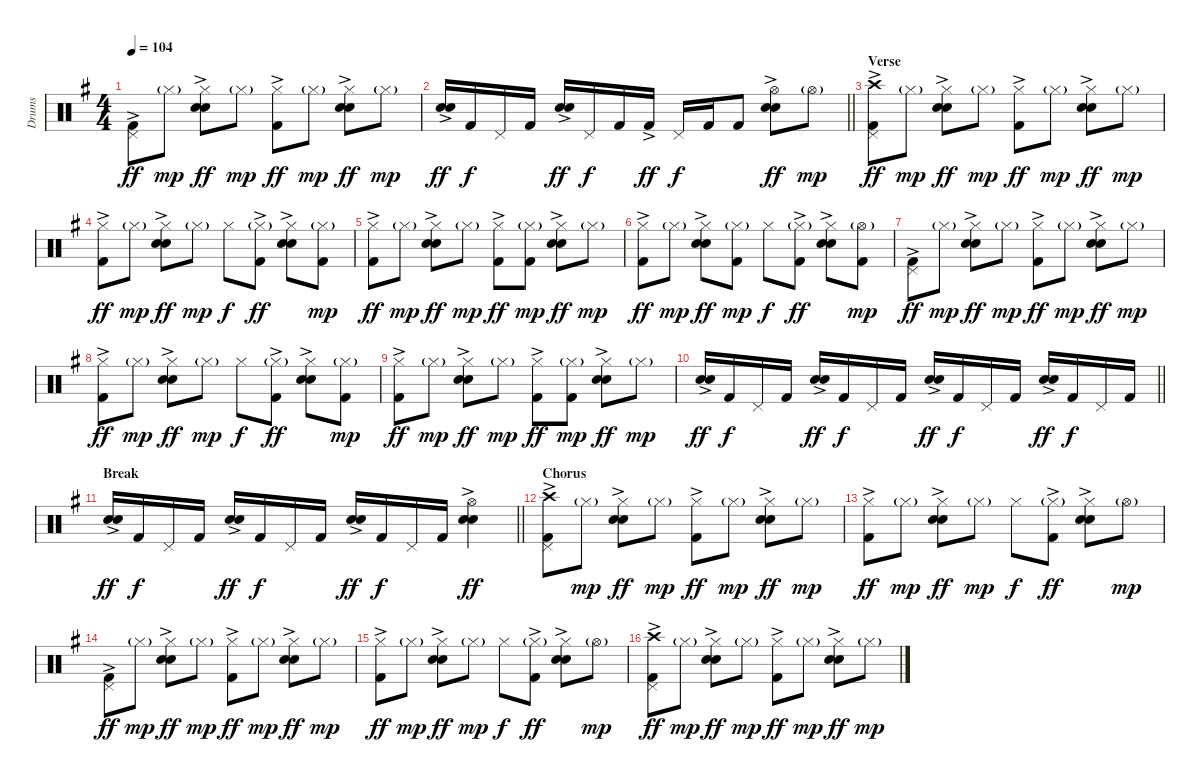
\track ("Drums" "Drums") {instrument percussion}
\staff {score}
\articulation defaults
\ts (4 4)
\tempo 104
\clef neutral
\ks g
("Pedal Hi-Hat (hit)" "Kick (hit) 2"{ac}).8{dy ff} "Hi-Hat (closed)"{g}.8{dy mp} ("Hi-Hat (closed)" "Electric Snare (hit)"{ac} "Snare (hit) 2").8{dy ff} "Hi-Hat (closed)"{g}.8{dy mp} ("Hi-Hat (closed)" "Kick (hit) 2"{ac}).8{dy ff} "Hi-Hat (closed)"{g}.8{dy mp} ("Hi-Hat (closed)" "Electric Snare (hit)"{ac} "Snare (hit) 2").8{dy ff} "Hi-Hat (closed)"{g}.8{dy mp} |
\barLineRight lightlight
("Electric Snare (hit)"{ac} "Snare (hit) 2").16{dy ff} "Kick (hit) 2".16{dy f} "Pedal Hi-Hat (hit)".16 "Kick (hit) 2".16 ("Electric Snare (hit)"{ac} "Snare (hit) 2").16{dy ff} "Pedal Hi-Hat (hit)".16{dy f} "Kick (hit) 2".16 "Kick (hit) 2"{ac}.16{dy ff} "Pedal Hi-Hat (hit)".16{dy f} "Kick (hit) 2".16 "Kick (hit) 2".8 ("Hi-Hat (open)" "Electric Snare (hit)"{ac} "Snare (hit) 2").8{dy ff} "Hi-Hat (open)"{g}.8{dy mp} |
\section ("" "Verse")
("Pedal Hi-Hat (hit)" "Crash high (hit)" "Kick (hit) 2"{ac}).8{dy ff} "Hi-Hat (closed)"{g}.8{dy mp} ("Hi-Hat (closed)" "Electric Snare (hit)"{ac} "Snare (hit) 2").8{dy ff} "Hi-Hat (closed)"{g}.8{dy mp} ("Hi-Hat (closed)" "Kick (hit) 2"{ac}).8{dy ff} "Hi-Hat (closed)"{g}.8{dy mp} ("Hi-Hat (closed)" "Electric Snare (hit)"{ac} "Snare (hit) 2").8{dy ff} "Hi-Hat (closed)"{g}.8{dy mp} |
("Hi-Hat (closed)" "Kick (hit) 2"{ac}).8{dy ff} "Hi-Hat (closed)"{g}.8{dy mp} ("Hi-Hat (closed)" "Electric Snare (hit)"{ac} "Snare (hit) 2").8{dy ff} "Hi-Hat (closed)"{g}.8{dy mp} "Hi-Hat (closed)".8{dy f} ("Hi-Hat (closed)"{g} "Kick (hit) 2"{ac}).8{dy ff} ("Hi-Hat (closed)" "Electric Snare (hit)"{ac} "Snare (hit) 2").8 ("Hi-Hat (closed)"{g} "Kick (hit) 2").8{dy mp} |
("Hi-Hat (closed)" "Kick (hit) 2"{ac}).8{dy ff} "Hi-Hat (closed)"{g}.8{dy mp} ("Hi-Hat (closed)" "Electric Snare (hit)"{ac} "Snare (hit) 2").8{dy ff} "Hi-Hat (closed)"{g}.8{dy mp} ("Hi-Hat (closed)" "Kick (hit) 2"{ac}).8{dy ff} ("Hi-Hat (closed)"{g} "Kick (hit) 2").8{dy mp} ("Hi-Hat (closed)" "Electric Snare (hit)"{ac} "Snare (hit) 2").8{dy ff} "Hi-Hat (closed)"{g}.8{dy mp} |
("Hi-Hat (closed)" "Kick (hit) 2"{ac}).8{dy ff} "Hi-Hat (closed)"{g}.8{dy mp} ("Hi-Hat (closed)" "Electric Snare (hit)"{ac} "Snare (hit) 2").8{dy ff} ("Hi-Hat (closed)"{g} "Kick (hit) 2").8{dy mp} "Hi-Hat (closed)".8{dy f} ("Hi-Hat (closed)"{g} "Kick (hit) 2"{ac}).8{dy ff} ("Hi-Hat (closed)" "Electric Snare (hit)"{ac} "Snare (hit) 2").8 ("Hi-Hat (open)"{g} "Kick (hit) 2").8{dy mp} |
("Pedal Hi-Hat (hit)" "Kick (hit) 2"{ac}).8{dy ff} "Hi-Hat (closed)"{g}.8{dy mp} ("Hi-Hat (closed)" "Electric Snare (hit)"{ac} "Snare (hit) 2").8{dy ff} "Hi-Hat (closed)"{g}.8{dy mp} ("Hi-Hat (closed)" "Kick (hit) 2"{ac}).8{dy ff} "Hi-Hat (closed)"{g}.8{dy mp} ("Hi-Hat (closed)" "Electric Snare (hit)"{ac} "Snare (hit) 2").8{dy ff} "Hi-Hat (closed)"{g}.8{dy mp} |
("Hi-Hat (closed)" "Kick (hit) 2"{ac}).8{dy ff} "Hi-Hat (closed)"{g}.8{dy mp} ("Hi-Hat (closed)" "Electric Snare (hit)"{ac} "Snare (hit) 2").8{dy ff} "Hi-Hat (closed)"{g}.8{dy mp} "Hi-Hat (closed)".8{dy f} ("Hi-Hat (closed)"{g} "Kick (hit) 2"{ac}).8{dy ff} ("Hi-Hat (closed)" "Electric Snare (hit)"{ac} "Snare (hit) 2").8 ("Hi-Hat (closed)"{g} "Kick (hit) 2").8{dy mp} |
("Hi-Hat (closed)" "Kick (hit) 2"{ac}).8{dy ff} "Hi-Hat (closed)"{g}.8{dy mp} ("Hi-Hat (closed)" "Electric Snare (hit)"{ac} "Snare (hit) 2").8{dy ff} "Hi-Hat (closed)"{g}.8{dy mp} ("Hi-Hat (closed)" "Kick (hit) 2"{ac}).8{dy ff} ("Hi-Hat (closed)"{g} "Kick (hit) 2").8{dy mp} ("Hi-Hat (closed)" "Electric Snare (hit)"{ac} "Snare (hit) 2").8{dy ff} "Hi-Hat (closed)"{g}.8{dy mp} |
\barLineRight lightlight
("Electric Snare (hit)"{ac} "Snare (hit) 2").16{dy ff} "Kick (hit) 2".16{dy f} "Pedal Hi-Hat (hit)".16 "Kick (hit) 2".16 ("Electric Snare (hit)"{ac} "Snare (hit) 2").16{dy ff} "Kick (hit) 2".16{dy f} "Pedal Hi-Hat (hit)".16 "Kick (hit) 2".16 ("Electric Snare (hit)"{ac} "Snare (hit) 2").16{dy ff} "Kick (hit) 2".16{dy f} "Pedal Hi-Hat (hit)".16 "Kick (hit) 2".16 ("Electric Snare (hit)"{ac} "Snare (hit) 2").16{dy ff} "Kick (hit) 2".16{dy f} "Pedal Hi-Hat (hit)".16 "Kick (hit) 2".16 |
\section ("" "Break")
\barLineRight lightlight
("Electric Snare (hit)"{ac} "Snare (hit) 2").16{dy ff} "Kick (hit) 2".16{dy f} "Pedal Hi-Hat (hit)".16 "Kick (hit) 2".16 ("Electric Snare (hit)"{ac} "Snare (hit) 2").16{dy ff} "Kick (hit) 2".16{dy f} "Pedal Hi-Hat (hit)".16 "Kick (hit) 2".16 ("Electric Snare (hit)"{ac} "Snare (hit) 2").16{dy ff} "Kick (hit) 2".16{dy f} "Pedal Hi-Hat (hit)".16 "Kick (hit) 2".16 ("Hi-Hat (open)" "Electric Snare (hit)"{ac} "Snare (hit) 2").4{dy ff} |
\section ("" "Chorus")
("Pedal Hi-Hat (hit)" "Crash high (hit)" "Kick (hit) 2"{ac}).8 "Hi-Hat (closed)"{g}.8{dy mp} ("Hi-Hat (closed)" "Electric Snare (hit)"{ac} "Snare (hit) 2").8{dy ff} "Hi-Hat (closed)"{g}.8{dy mp} ("Hi-Hat (closed)" "Kick (hit) 2"{ac}).8{dy ff} "Hi-Hat (closed)"{g}.8{dy mp} ("Hi-Hat (closed)" "Electric Snare (hit)"{ac} "Snare (hit) 2").8{dy ff} "Hi-Hat (closed)"{g}.8{dy mp} |
("Hi-Hat (closed)" "Kick (hit) 2"{ac}).8{dy ff} "Hi-Hat (closed)"{g}.8{dy mp} ("Hi-Hat (closed)" "Electric Snare (hit)"{ac} "Snare (hit) 2").8{dy ff} "Hi-Hat (closed)"{g}.8{dy mp} "Hi-Hat (closed)".8{dy f} ("Hi-Hat (closed)"{g} "Kick (hit) 2"{ac}).8{dy ff} ("Hi-Hat (closed)" "Electric Snare (hit)"{ac} "Snare (hit) 2").8 "Hi-Hat (open)"{g}.8{dy mp} |
("Pedal Hi-Hat (hit)" "Kick (hit) 2"{ac}).8{dy ff} "Hi-Hat (closed)"{g}.8{dy mp} ("Hi-Hat (closed)" "Electric Snare (hit)"{ac} "Snare (hit) 2").8{dy ff} "Hi-Hat (closed)"{g}.8{dy mp} ("Hi-Hat (closed)" "Kick (hit) 2"{ac}).8{dy ff} "Hi-Hat (closed)"{g}.8{dy mp} ("Hi-Hat (closed)" "Electric Snare (hit)"{ac} "Snare (hit) 2").8{dy ff} "Hi-Hat (closed)"{g}.8{dy mp} |
("Hi-Hat (closed)" "Kick (hit) 2"{ac}).8{dy ff} "Hi-Hat (closed)"{g}.8{dy mp} ("Hi-Hat (closed)" "Electric Snare (hit)"{ac} "Snare (hit) 2").8{dy ff} "Hi-Hat (closed)"{g}.8{dy mp} "Hi-Hat (closed)".8{dy f} ("Hi-Hat (closed)"{g} "Kick (hit) 2"{ac}).8{dy ff} ("Hi-Hat (closed)" "Electric Snare (hit)"{ac} "Snare (hit) 2").8 "Hi-Hat (open)"{g}.8{dy mp} |
("Pedal Hi-Hat (hit)" "Crash high (hit)" "Kick (hit) 2"{ac}).8{dy ff} "Hi-Hat (closed)"{g}.8{dy mp} ("Hi-Hat (closed)" "Electric Snare (hit)"{ac} "Snare (hit) 2").8{dy ff} "Hi-Hat (closed)"{g}.8{dy mp} ("Hi-Hat (closed)" "Kick (hit) 2"{ac}).8{dy ff} "Hi-Hat (closed)"{g}.8{dy mp} ("Hi-Hat (closed)" "Electric Snare (hit)"{ac} "Snare (hit) 2").8{dy ff} "Hi-Hat (closed)"{g}.8{dy mp}
